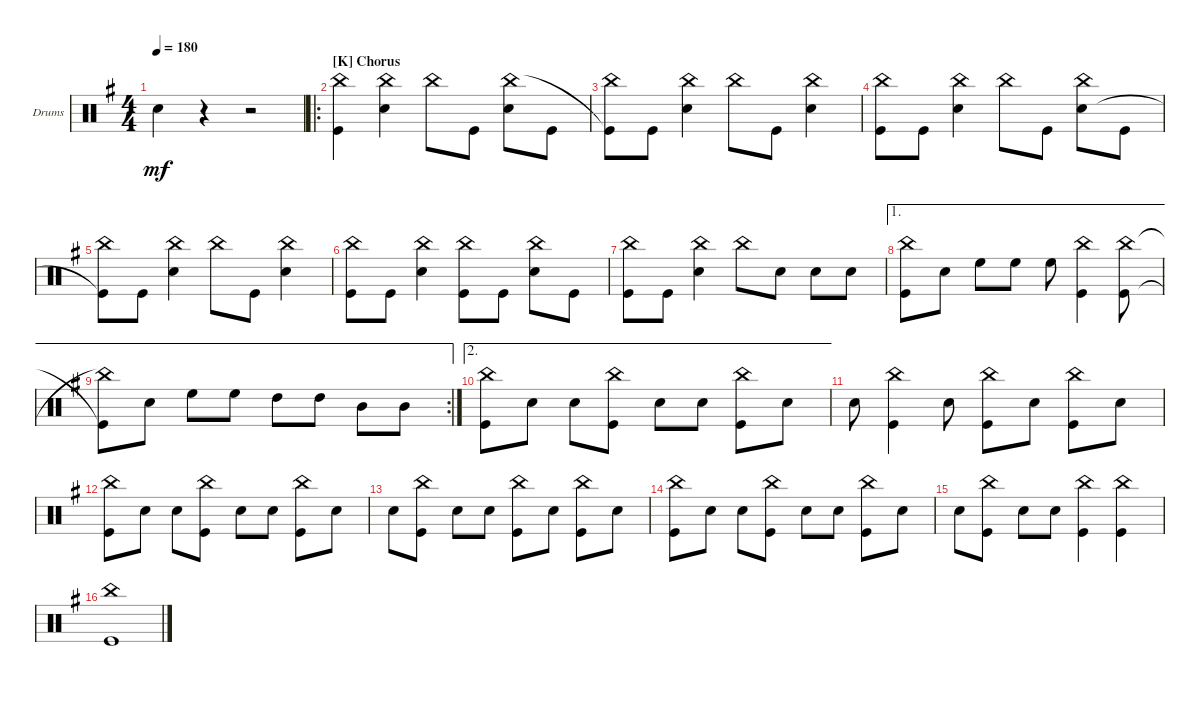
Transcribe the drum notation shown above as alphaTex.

\defaultSystemsLayout 4
\bracketExtendMode groupsimilarinstruments
\firstSystemTrackNameOrientation horizontal
\otherSystemsTrackNameOrientation horizontal
\track ("Drumkit" "Drums") {instrument percussion}
\staff {score}
\articulation defaults
\ts (4 4)
\tempo 180
\clef neutral
\scale
0.333333
\ks g "Snare (hit) 2".4{dy mf}
r.4 r.2 |
\ro
\section ("K" "Chorus")
\scale
0.377778 ("Kick (hit)" "China (hit)").4 ("Snare (hit) 2" "China (hit)").4 "China (hit)".8 "Kick (hit)".8 ("Snare (hit) 2" "China (hit)").8 "Kick (hit)".8 |
\scale
0.311111 ("China (hit)" "Kick (hit)"{t}).8 "Kick (hit)".8 ("Snare (hit) 2" "China (hit)").4 "China (hit)".8 "Kick (hit)".8 ("China (hit)" "Snare (hit) 2").4 |
\scale
0.311111 ("China (hit)" "Kick (hit)").8 "Kick (hit)".8 ("Snare (hit) 2" "China (hit)").4 "China (hit)".8 "Kick (hit)".8 ("China (hit)" "Snare (hit) 2").8 "Kick (hit)".8 |
\scale
0.333333 ("China (hit)" "Kick (hit)"{t}).8 "Kick (hit)".8 ("Snare (hit) 2" "China (hit)").4 "China (hit)".8 "Kick (hit)".8 ("China (hit)" "Snare (hit) 2").4 |
\scale
0.333333 ("China (hit)" "Kick (hit)").8 "Kick (hit)".8 ("Snare (hit) 2" "China (hit)").4 ("China (hit)" "Kick (hit)").8 "Kick (hit)".8 ("China (hit)" "Snare (hit) 2").8 "Kick (hit)".8 |
\scale
0.333333 ("Kick (hit)" "China (hit)").8 "Kick (hit)".8 ("Snare (hit) 2" "China (hit)").4 "China (hit)".8 "Snare (hit) 2".8 "Snare (hit) 2".8 "Snare (hit) 2".8 |
\ae 1
\scale
0.321839 ("Kick (hit)" "China (hit)").8 "Snare (hit) 2".8 "High Floor Tom (hit)".8 "High Floor Tom (hit)".8 "High Floor Tom (hit)".8 ("Kick (hit)" "China (hit)").4 ("Kick (hit)" "China (hit)").8 |
\ae 1
\rc 2
\scale
0.356322 ("China (hit)"{t} "Kick (hit)"{t}).8 "Snare (hit) 2".8 "High Floor Tom (hit)".8 "High Floor Tom (hit)".8 "High Tom (hit)".8 "High Tom (hit)".8 "Mid Tom (hit)".8 "Mid Tom (hit)".8 |
\ae 2
\scale
0.321839 ("Kick (hit)" "China (hit)").8 "Snare (hit) 2".8 "Snare (hit) 2".8 ("China (hit)" "Kick (hit)").8 "Snare (hit) 2".8 "Snare (hit) 2".8 ("Kick (hit)" "China (hit)").8 "Snare (hit) 2".8 |
\scale
0.333333 "Snare (hit) 2".8 ("Kick (hit)" "China (hit)").4 "Snare (hit) 2".8 ("Kick (hit)" "China (hit)").8 "Snare (hit) 2".8 ("Kick (hit)" "China (hit)").8 "Snare (hit) 2".8 |
\scale
0.333333 ("Kick (hit)" "China (hit)").8 "Snare (hit) 2".8 "Snare (hit) 2".8 ("China (hit)" "Kick (hit)").8 "Snare (hit) 2".8 "Snare (hit) 2".8 ("Kick (hit)" "China (hit)").8 "Snare (hit) 2".8 |
\scale
0.333333 "Snare (hit) 2".8 ("Kick (hit)" "China (hit)").8 "Snare (hit) 2".8 "Snare (hit) 2".8 ("Kick (hit)" "China (hit)").8 "Snare (hit) 2".8 ("Kick (hit)" "China (hit)").8 "Snare (hit) 2".8 |
\scale
0.333333 ("Kick (hit)" "China (hit)").8 "Snare (hit) 2".8 "Snare (hit) 2".8 ("China (hit)" "Kick (hit)").8 "Snare (hit) 2".8 "Snare (hit) 2".8 ("Kick (hit)" "China (hit)").8 "Snare (hit) 2".8 |
\scale
0.333333 "Snare (hit) 2".8 ("Kick (hit)" "China (hit)").8 "Snare (hit) 2".8 "Snare (hit) 2".8 ("Kick (hit)" "China (hit)").4 ("Kick (hit)" "China (hit)").4 |
\scale
0.333333 ("China (hit)" "Kick (hit)").1
